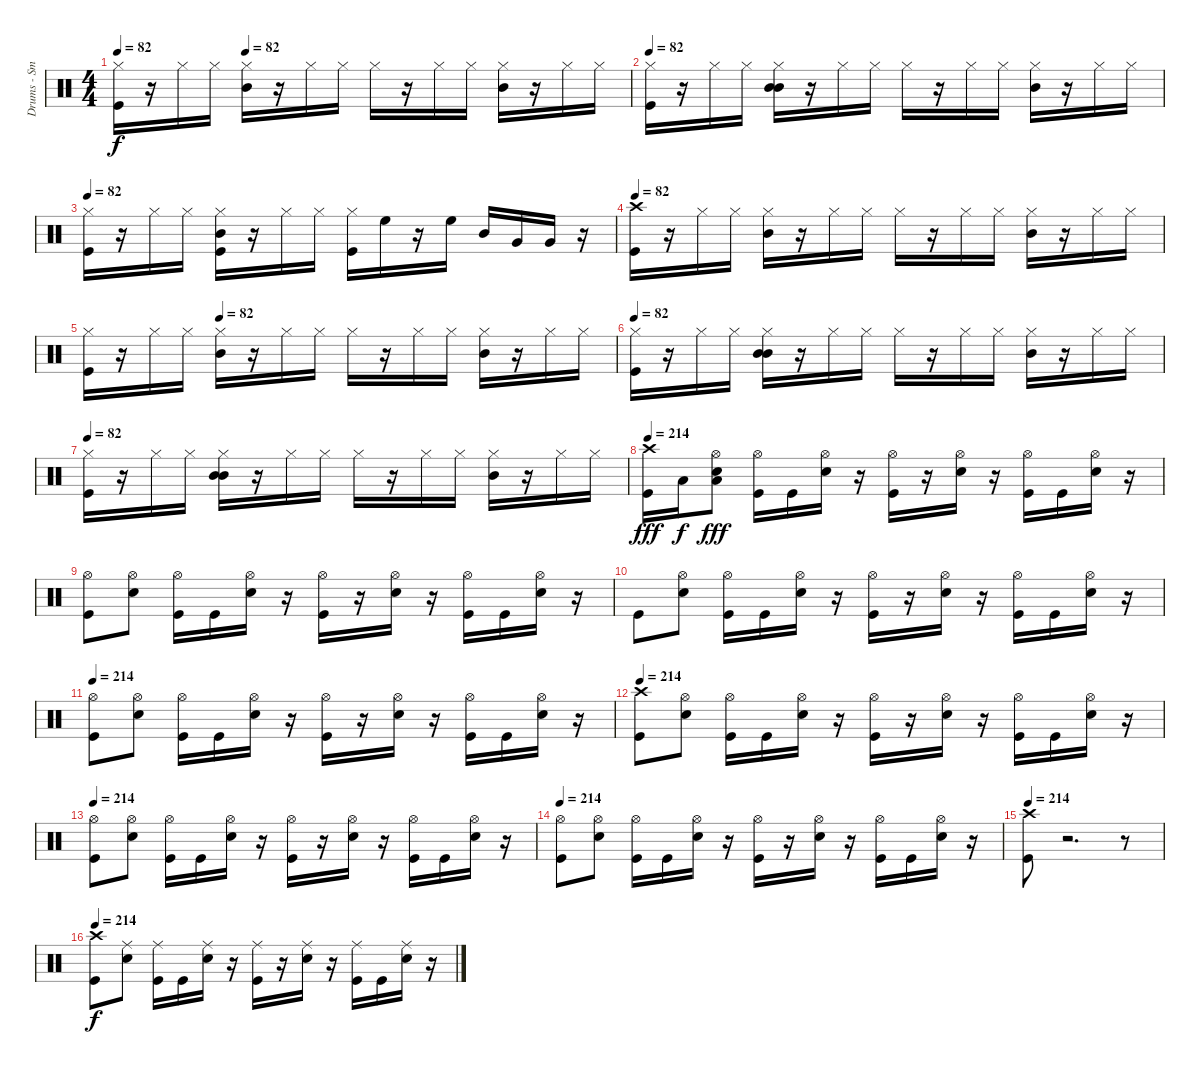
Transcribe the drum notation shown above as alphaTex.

\track ("Drums - Smelly" "Drums - Sm") {instrument percussion}
\staff {score}
\articulation defaults
\ts (4 4)
\tempo 82
\tempo (82 0.25)
\clef neutral
\ks c
("Hi-Hat (closed)" "Kick (hit)").16{dy f} r.16 "Hi-Hat (closed)".16 "Hi-Hat (closed)".16 ("Hi-Hat (closed)" "Mid Tom (hit)").16 r.16 "Hi-Hat (closed)".16 "Hi-Hat (closed)".16 "Hi-Hat (closed)".16 r.16 "Hi-Hat (closed)".16 "Hi-Hat (closed)".16 ("Mid Tom (hit)" "Hi-Hat (closed)").16 r.16 "Hi-Hat (closed)".16 "Hi-Hat (closed)".16 |
\tempo 82
("Kick (hit)" "Hi-Hat (closed)").16 r.16 "Hi-Hat (closed)".16 "Hi-Hat (closed)".16 ("Mid Tom (hit)" "Mid Tom (hit)" "Hi-Hat (closed)").16 r.16 "Hi-Hat (closed)".16 "Hi-Hat (closed)".16 "Hi-Hat (closed)".16 r.16 "Hi-Hat (closed)".16 "Hi-Hat (closed)".16 ("Mid Tom (hit)" "Hi-Hat (closed)").16 r.16 "Hi-Hat (closed)".16 "Hi-Hat (closed)".16 |
\tempo 82
("Kick (hit)" "Hi-Hat (closed)").16 r.16 "Hi-Hat (closed)".16 "Hi-Hat (closed)".16 ("Kick (hit)" "Mid Tom (hit)" "Hi-Hat (closed)").16 r.16 "Hi-Hat (closed)".16 "Hi-Hat (closed)".16 ("Hi-Hat (closed)" "Kick (hit)").16 "High Floor Tom (hit)".16 r.16 "High Floor Tom (hit)".16 "Mid Tom (hit)".16 "Very Low Tom (hit)".16 "Very Low Tom (hit)".16 r.16 |
\tempo 82
("Kick (hit)" "Crash high (hit)").16 r.16 "Hi-Hat (closed)".16 "Hi-Hat (closed)".16 ("Hi-Hat (closed)" "Mid Tom (hit)").16 r.16 "Hi-Hat (closed)".16 "Hi-Hat (closed)".16 "Hi-Hat (closed)".16 r.16 "Hi-Hat (closed)".16 "Hi-Hat (closed)".16 ("Hi-Hat (closed)" "Mid Tom (hit)").16 r.16 "Hi-Hat (closed)".16 "Hi-Hat (closed)".16 |
\tempo (82 0.25)
("Hi-Hat (closed)" "Kick (hit)").16 r.16 "Hi-Hat (closed)".16 "Hi-Hat (closed)".16 ("Hi-Hat (closed)" "Mid Tom (hit)").16 r.16 "Hi-Hat (closed)".16 "Hi-Hat (closed)".16 "Hi-Hat (closed)".16 r.16 "Hi-Hat (closed)".16 "Hi-Hat (closed)".16 ("Mid Tom (hit)" "Hi-Hat (closed)").16 r.16 "Hi-Hat (closed)".16 "Hi-Hat (closed)".16 |
\tempo 82
("Kick (hit)" "Hi-Hat (closed)").16 r.16 "Hi-Hat (closed)".16 "Hi-Hat (closed)".16 ("Mid Tom (hit)" "Mid Tom (hit)" "Hi-Hat (closed)").16 r.16 "Hi-Hat (closed)".16 "Hi-Hat (closed)".16 "Hi-Hat (closed)".16 r.16 "Hi-Hat (closed)".16 "Hi-Hat (closed)".16 ("Mid Tom (hit)" "Hi-Hat (closed)").16 r.16 "Hi-Hat (closed)".16 "Hi-Hat (closed)".16 |
\tempo 82
("Kick (hit)" "Hi-Hat (closed)").16 r.16 "Hi-Hat (closed)".16 "Hi-Hat (closed)".16 ("Mid Tom (hit)" "Mid Tom (hit)" "Hi-Hat (closed)").16 r.16 "Hi-Hat (closed)".16 "Hi-Hat (closed)".16 "Hi-Hat (closed)".16 r.16 "Hi-Hat (closed)".16 "Hi-Hat (closed)".16 ("Mid Tom (hit)" "Hi-Hat (closed)").16 r.16 "Hi-Hat (closed)".16 "Hi-Hat (closed)".16 |
\tempo 214
("Crash high (hit)" "Kick (hit)").16{dy fff} "Low Floor Tom (hit)".16{dy f} ("Hi-Hat (open)" "Electric Snare (hit)" "Low Floor Tom (hit)").8{dy fff} ("Hi-Hat (open)" "Kick (hit)").16 "Kick (hit)".16 ("Hi-Hat (open)" "Electric Snare (hit)").16 r.16 ("Hi-Hat (open)" "Kick (hit)").16 r.16 ("Hi-Hat (open)" "Electric Snare (hit)").16 r.16 ("Hi-Hat (open)" "Kick (hit)").16 "Kick (hit)".16 ("Hi-Hat (open)" "Electric Snare (hit)").16 r.16 |
("Hi-Hat (open)" "Kick (hit)").8 ("Hi-Hat (open)" "Electric Snare (hit)").8 ("Hi-Hat (open)" "Kick (hit)").16 "Kick (hit)".16 ("Hi-Hat (open)" "Electric Snare (hit)").16 r.16 ("Hi-Hat (open)" "Kick (hit)").16 r.16 ("Hi-Hat (open)" "Electric Snare (hit)").16 r.16 ("Hi-Hat (open)" "Kick (hit)").16 "Kick (hit)".16 ("Hi-Hat (open)" "Electric Snare (hit)").16 r.16 |
"Kick (hit)".8 ("Electric Snare (hit)" "Hi-Hat (open)").8 ("Kick (hit)" "Hi-Hat (open)").16 "Kick (hit)".16 ("Electric Snare (hit)" "Hi-Hat (open)").16 r.16 ("Kick (hit)" "Hi-Hat (open)").16 r.16 ("Electric Snare (hit)" "Hi-Hat (open)").16 r.16 ("Kick (hit)" "Hi-Hat (open)").16 "Kick (hit)".16 ("Electric Snare (hit)" "Hi-Hat (open)").16 r.16 |
\tempo 214
("Kick (hit)" "Hi-Hat (open)").8 ("Electric Snare (hit)" "Hi-Hat (open)").8 ("Kick (hit)" "Hi-Hat (open)").16 "Kick (hit)".16 ("Electric Snare (hit)" "Hi-Hat (open)").16 r.16 ("Kick (hit)" "Hi-Hat (open)").16 r.16 ("Electric Snare (hit)" "Hi-Hat (open)").16 r.16 ("Kick (hit)" "Hi-Hat (open)").16 "Kick (hit)".16 ("Electric Snare (hit)" "Hi-Hat (open)").16 r.16 |
\tempo 214
("Kick (hit)" "Crash high (hit)").8 ("Electric Snare (hit)" "Hi-Hat (open)").8 ("Kick (hit)" "Hi-Hat (open)").16 "Kick (hit)".16 ("Electric Snare (hit)" "Hi-Hat (open)").16 r.16 ("Kick (hit)" "Hi-Hat (open)").16 r.16 ("Electric Snare (hit)" "Hi-Hat (open)").16 r.16 ("Kick (hit)" "Hi-Hat (open)").16 "Kick (hit)".16 ("Electric Snare (hit)" "Hi-Hat (open)").16 r.16 |
\tempo 214
("Kick (hit)" "Hi-Hat (open)").8 ("Electric Snare (hit)" "Hi-Hat (open)").8 ("Kick (hit)" "Hi-Hat (open)").16 "Kick (hit)".16 ("Electric Snare (hit)" "Hi-Hat (open)").16 r.16 ("Kick (hit)" "Hi-Hat (open)").16 r.16 ("Electric Snare (hit)" "Hi-Hat (open)").16 r.16 ("Kick (hit)" "Hi-Hat (open)").16 "Kick (hit)".16 ("Electric Snare (hit)" "Hi-Hat (open)").16 r.16 |
\tempo 214
("Kick (hit)" "Hi-Hat (open)").8 ("Electric Snare (hit)" "Hi-Hat (open)").8 ("Kick (hit)" "Hi-Hat (open)").16 "Kick (hit)".16 ("Electric Snare (hit)" "Hi-Hat (open)").16 r.16 ("Kick (hit)" "Hi-Hat (open)").16 r.16 ("Electric Snare (hit)" "Hi-Hat (open)").16 r.16 ("Kick (hit)" "Hi-Hat (open)").16 "Kick (hit)".16 ("Electric Snare (hit)" "Hi-Hat (open)").16 r.16 |
\tempo 214
("Kick (hit)" "Crash high (hit)").8 r.2{d} r.8 |
\tempo 214
("Crash high (hit)" "Kick (hit)").8{dy f} ("Snare (hit) 2" "Ride (middle)").8 ("Ride (middle)" "Kick (hit)").16 "Kick (hit)".16 ("Snare (hit) 2" "Ride (middle)").16 r.16 ("Ride (middle)" "Kick (hit)").16 r.16 ("Ride (middle)" "Snare (hit) 2").16 r.16 ("Ride (middle)" "Kick (hit)").16 "Kick (hit)".16 ("Ride (middle)" "Snare (hit) 2").16 r.16
